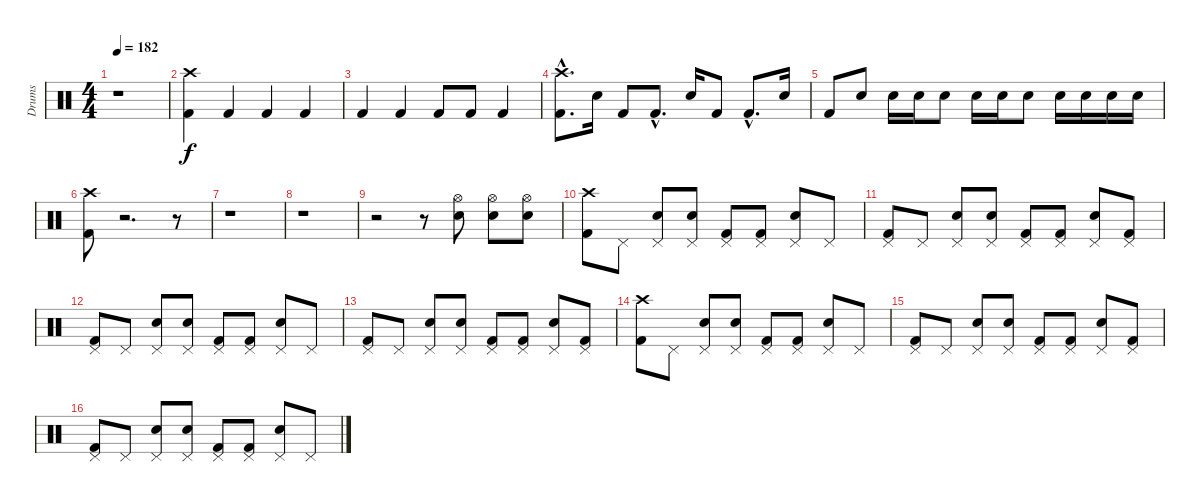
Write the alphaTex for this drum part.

\track ("Drums" "Drums") {instrument percussion}
\staff {score}
\articulation defaults
\ts (4 4)
\tempo 182
\clef neutral
\ks c
r.1{dy f} |
("Crash high (hit)" "Kick (hit) 2").4 "Kick (hit) 2".4 "Kick (hit) 2".4 "Kick (hit) 2".4 |
"Kick (hit) 2".4 "Kick (hit) 2".4 "Kick (hit) 2".8 "Kick (hit) 2".8 "Kick (hit) 2".4 |
("Crash high (hit)"{hac} "Kick (hit) 2"{hac}).8{d} "Electric Snare (hit)".16 "Kick (hit) 2".8 "Kick (hit) 2"{hac}.8{d} "Electric Snare (hit)".16 "Kick (hit) 2".8 "Kick (hit) 2"{hac}.8{d} "Electric Snare (hit)".16 |
"Kick (hit) 2".8 "Electric Snare (hit)".8 "Electric Snare (hit)".16 "Electric Snare (hit)".16 "Electric Snare (hit)".8 "Electric Snare (hit)".16 "Electric Snare (hit)".16 "Electric Snare (hit)".8 "Electric Snare (hit)".16 "Electric Snare (hit)".16 "Electric Snare (hit)".16 "Electric Snare (hit)".16 |
("Crash high (hit)" "Kick (hit) 2").8 r.2{d} r.8 |
r.1 |
r.1 |
r.2 r.8 ("Hi-Hat (open)" "Electric Snare (hit)").8 ("Hi-Hat (open)" "Electric Snare (hit)").8 ("Hi-Hat (open)" "Electric Snare (hit)").8 |
("Crash high (hit)" "Kick (hit) 2").8 "Pedal Hi-Hat (hit)".8 ("Pedal Hi-Hat (hit)" "Electric Snare (hit)").8 ("Pedal Hi-Hat (hit)" "Electric Snare (hit)").8 ("Pedal Hi-Hat (hit)" "Kick (hit) 2").8 ("Pedal Hi-Hat (hit)" "Kick (hit) 2").8 ("Pedal Hi-Hat (hit)" "Electric Snare (hit)").8 "Pedal Hi-Hat (hit)".8 |
("Pedal Hi-Hat (hit)" "Kick (hit) 2").8 "Pedal Hi-Hat (hit)".8 ("Pedal Hi-Hat (hit)" "Electric Snare (hit)").8 ("Pedal Hi-Hat (hit)" "Electric Snare (hit)").8 ("Pedal Hi-Hat (hit)" "Kick (hit) 2").8 ("Pedal Hi-Hat (hit)" "Kick (hit) 2").8 ("Pedal Hi-Hat (hit)" "Electric Snare (hit)").8 ("Pedal Hi-Hat (hit)" "Kick (hit) 2").8 |
("Pedal Hi-Hat (hit)" "Kick (hit) 2").8 "Pedal Hi-Hat (hit)".8 ("Pedal Hi-Hat (hit)" "Electric Snare (hit)").8 ("Pedal Hi-Hat (hit)" "Electric Snare (hit)").8 ("Pedal Hi-Hat (hit)" "Kick (hit) 2").8 ("Pedal Hi-Hat (hit)" "Kick (hit) 2").8 ("Pedal Hi-Hat (hit)" "Electric Snare (hit)").8 "Pedal Hi-Hat (hit)".8 |
("Pedal Hi-Hat (hit)" "Kick (hit) 2").8 "Pedal Hi-Hat (hit)".8 ("Pedal Hi-Hat (hit)" "Electric Snare (hit)").8 ("Pedal Hi-Hat (hit)" "Electric Snare (hit)").8 ("Pedal Hi-Hat (hit)" "Kick (hit) 2").8 ("Pedal Hi-Hat (hit)" "Kick (hit) 2").8 ("Pedal Hi-Hat (hit)" "Electric Snare (hit)").8 ("Pedal Hi-Hat (hit)" "Kick (hit) 2").8 |
("Crash high (hit)" "Kick (hit) 2").8 "Pedal Hi-Hat (hit)".8 ("Pedal Hi-Hat (hit)" "Electric Snare (hit)").8 ("Pedal Hi-Hat (hit)" "Electric Snare (hit)").8 ("Pedal Hi-Hat (hit)" "Kick (hit) 2").8 ("Pedal Hi-Hat (hit)" "Kick (hit) 2").8 ("Pedal Hi-Hat (hit)" "Electric Snare (hit)").8 "Pedal Hi-Hat (hit)".8 |
("Pedal Hi-Hat (hit)" "Kick (hit) 2").8 "Pedal Hi-Hat (hit)".8 ("Pedal Hi-Hat (hit)" "Electric Snare (hit)").8 ("Pedal Hi-Hat (hit)" "Electric Snare (hit)").8 ("Pedal Hi-Hat (hit)" "Kick (hit) 2").8 ("Pedal Hi-Hat (hit)" "Kick (hit) 2").8 ("Pedal Hi-Hat (hit)" "Electric Snare (hit)").8 ("Pedal Hi-Hat (hit)" "Kick (hit) 2").8 |
("Pedal Hi-Hat (hit)" "Kick (hit) 2").8 "Pedal Hi-Hat (hit)".8 ("Pedal Hi-Hat (hit)" "Electric Snare (hit)").8 ("Pedal Hi-Hat (hit)" "Electric Snare (hit)").8 ("Pedal Hi-Hat (hit)" "Kick (hit) 2").8 ("Pedal Hi-Hat (hit)" "Kick (hit) 2").8 ("Pedal Hi-Hat (hit)" "Electric Snare (hit)").8 "Pedal Hi-Hat (hit)".8
